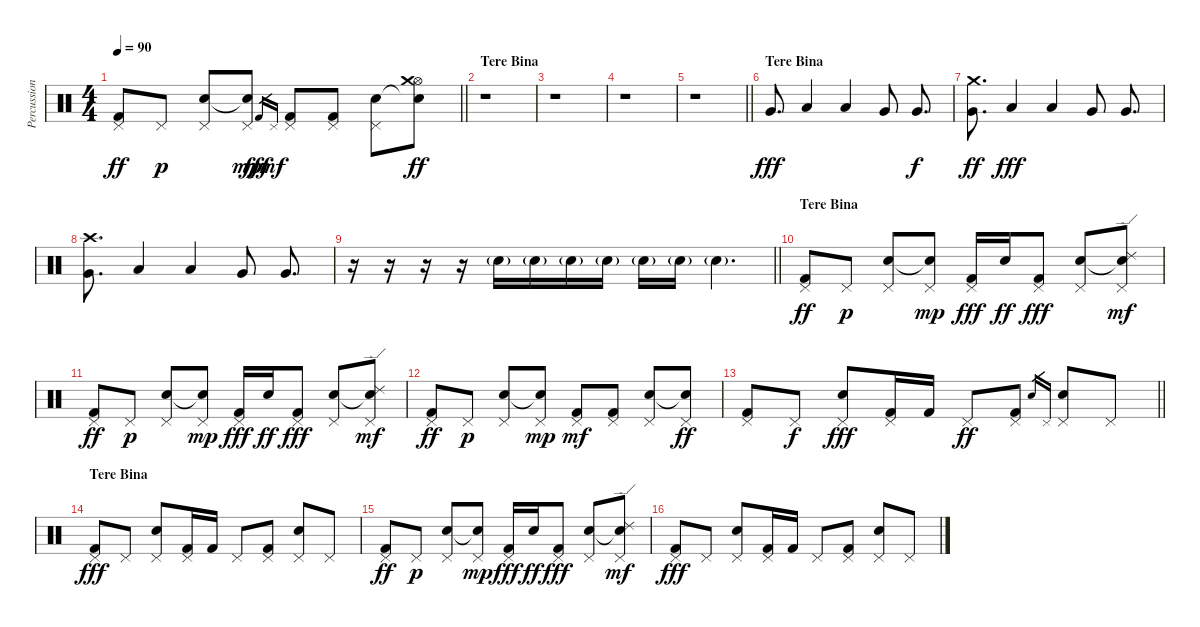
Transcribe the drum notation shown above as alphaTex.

\track ("Percussion" "Percussion") {instrument percussion}
\staff {score}
\articulation defaults
\ts (4 4)
\tempo 90
\clef neutral
\barLineRight lightlight
\ks c
("Kick (hit) 2" "Pedal Hi-Hat (hit)").8{dy ff} "Pedal Hi-Hat (hit)".8{dy p} ("Electric Snare (hit)" "Pedal Hi-Hat (hit)").8 ("Snare (hit)"{t} "Pedal Hi-Hat (hit)").8{dy mp} "Kick (hit) 2".16{gr dy fff} "Pedal Hi-Hat (hit)".16{gr dy mf} ("Kick (hit) 2" "Pedal Hi-Hat (hit)").8 ("Kick (hit) 2" "Pedal Hi-Hat (hit)").8 ("Electric Snare (hit)" "Pedal Hi-Hat (hit)").8 ("Snare (hit)"{t} "Hi-Hat (open)" "Crash medium (hit)").8{dy ff} |
\section ("" "Tere Bina")
r.1 |
r.1 |
r.1 |
\barLineRight lightlight
r.1 |
\section ("" "Tere Bina")
"Very Low Tom (hit)".8{d dy fff} "Low Tom (hit)".4 "Low Floor Tom (hit)".4 "Very Low Tom (hit)".8 "Very Low Tom (hit)".8{d dy f} |
("Very Low Tom (hit)" "Crash medium (hit)").8{d dy ff} "Low Tom (hit)".4{dy fff} "Low Floor Tom (hit)".4 "Very Low Tom (hit)".8 "Very Low Tom (hit)".8{d} |
("Very Low Tom (hit)" "Crash high (hit)").8{d} "Low Tom (hit)".4 "Low Floor Tom (hit)".4 "Very Low Tom (hit)".8 "Very Low Tom (hit)".8{d} |
\barLineRight lightlight
r.16 r.16 r.16 r.16 "Electric Snare (hit)"{g}.16 "Electric Snare (hit)"{g}.16 "Electric Snare (hit)"{g}.16 "Electric Snare (hit)"{g}.16 "Electric Snare (hit)"{g}.16 "Electric Snare (hit)"{g}.16 "Electric Snare (hit)"{g}.4{d} |
\section ("" "Tere Bina")
("Kick (hit) 2" "Pedal Hi-Hat (hit)").8{dy ff} "Pedal Hi-Hat (hit)".8{dy p} ("Electric Snare (hit)" "Pedal Hi-Hat (hit)").8 ("Snare (hit)"{t} "Pedal Hi-Hat (hit)").8{dy mp} ("Kick (hit) 2" "Pedal Hi-Hat (hit)").16{dy fff} "Electric Snare (hit)".16{dy ff} ("Kick (hit) 2" "Pedal Hi-Hat (hit)").8{dy fff} ("Electric Snare (hit)" "Pedal Hi-Hat (hit)").8 ("Snare (hit)"{t} "Pedal Hi-Hat (hit)" "Ride (edge) 2").8{dy mf} |
("Kick (hit) 2" "Pedal Hi-Hat (hit)").8{dy ff} "Pedal Hi-Hat (hit)".8{dy p} ("Electric Snare (hit)" "Pedal Hi-Hat (hit)").8 ("Snare (hit)"{t} "Pedal Hi-Hat (hit)").8{dy mp} ("Kick (hit) 2" "Pedal Hi-Hat (hit)").16{dy fff} "Electric Snare (hit)".16{dy ff} ("Kick (hit) 2" "Pedal Hi-Hat (hit)").8{dy fff} ("Electric Snare (hit)" "Pedal Hi-Hat (hit)").8 ("Snare (hit)"{t} "Pedal Hi-Hat (hit)" "Ride (edge) 2").8{dy mf} |
("Kick (hit) 2" "Pedal Hi-Hat (hit)").8{dy ff} "Pedal Hi-Hat (hit)".8{dy p} ("Electric Snare (hit)" "Pedal Hi-Hat (hit)").8 ("Snare (hit)"{t} "Pedal Hi-Hat (hit)").8{dy mp} ("Kick (hit) 2" "Pedal Hi-Hat (hit)").8{dy mf} ("Kick (hit) 2" "Pedal Hi-Hat (hit)").8 ("Electric Snare (hit)" "Pedal Hi-Hat (hit)").8 ("Snare (hit)"{t} "Pedal Hi-Hat (hit)").8{dy ff} |
\barLineRight lightlight
("Kick (hit) 2" "Pedal Hi-Hat (hit)").8 "Pedal Hi-Hat (hit)".8{dy f} ("Electric Snare (hit)" "Pedal Hi-Hat (hit)").8{dy fff} ("Kick (hit) 2" "Pedal Hi-Hat (hit)").16 "Kick (hit) 2".16 "Pedal Hi-Hat (hit)".8{dy ff} ("Kick (hit) 2" "Pedal Hi-Hat (hit)").8 "Electric Snare (hit)"{sl}.16{gr} "Pedal Hi-Hat (hit)".16{gr} ("Electric Snare (hit)" "Pedal Hi-Hat (hit)").8 "Pedal Hi-Hat (hit)".8 |
\section ("" "Tere Bina")
("Kick (hit) 2" "Pedal Hi-Hat (hit)").8{dy fff} "Pedal Hi-Hat (hit)".8 ("Electric Snare (hit)" "Pedal Hi-Hat (hit)").8 ("Kick (hit) 2" "Pedal Hi-Hat (hit)").16 "Kick (hit) 2".16 "Pedal Hi-Hat (hit)".8 ("Kick (hit) 2" "Pedal Hi-Hat (hit)").8 ("Electric Snare (hit)" "Pedal Hi-Hat (hit)").8 "Pedal Hi-Hat (hit)".8 |
("Kick (hit) 2" "Pedal Hi-Hat (hit)").8{dy ff} "Pedal Hi-Hat (hit)".8{dy p} ("Electric Snare (hit)" "Pedal Hi-Hat (hit)").8 ("Snare (hit)"{t} "Pedal Hi-Hat (hit)").8{dy mp} ("Kick (hit) 2" "Pedal Hi-Hat (hit)").16{dy fff} "Electric Snare (hit)".16{dy ff} ("Kick (hit) 2" "Pedal Hi-Hat (hit)").8{dy fff} ("Electric Snare (hit)" "Pedal Hi-Hat (hit)").8 ("Snare (hit)"{t} "Pedal Hi-Hat (hit)" "Ride (edge) 2").8{dy mf} |
("Kick (hit) 2" "Pedal Hi-Hat (hit)").8{dy fff} "Pedal Hi-Hat (hit)".8 ("Electric Snare (hit)" "Pedal Hi-Hat (hit)").8 ("Kick (hit) 2" "Pedal Hi-Hat (hit)").16 "Kick (hit) 2".16 "Pedal Hi-Hat (hit)".8 ("Kick (hit) 2" "Pedal Hi-Hat (hit)").8 ("Electric Snare (hit)" "Pedal Hi-Hat (hit)").8 "Pedal Hi-Hat (hit)".8
